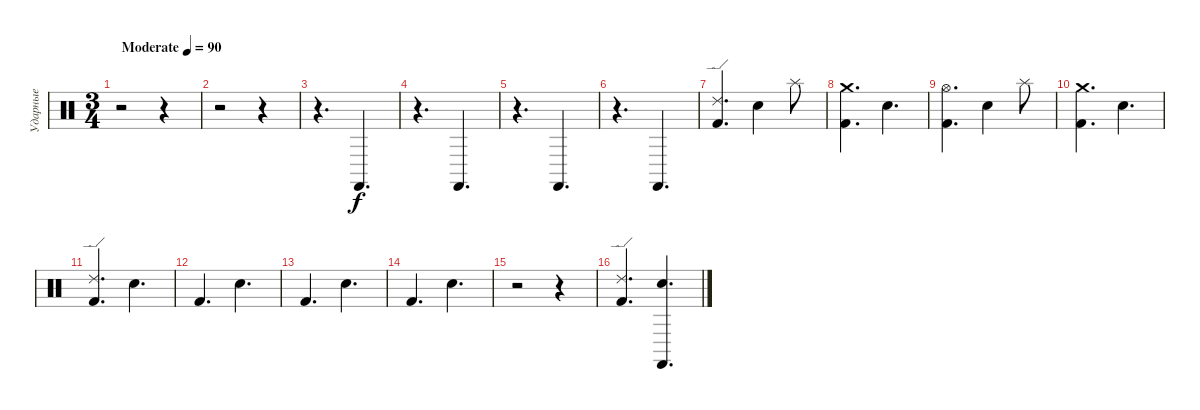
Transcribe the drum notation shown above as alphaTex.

\track ("Ударные" "Ударные") {instrument percussion}
\staff {score}
\articulation defaults
\ts (3 4)
\tempo (90 "Moderate")
\clef neutral
\ks c
r.2{dy f} r.4 |
r.2 r.4 |
r.4{d} "Castanets (hit)".4{d} |
r.4{d} "Castanets (hit)".4{d} |
r.4{d} "Castanets (hit)".4{d} |
r.4{d} "Castanets (hit)".4{d} |
("Ride (edge) 2" "Kick (hit) 2").4{d} "Snare (hit) 2".4 "Splash (hit)".8 |
("Crash medium (hit)" "Kick (hit) 2").4{d} "Snare (hit) 2".4{d} |
("Hi-Hat (open)" "Kick (hit) 2").4{d} "Snare (hit) 2".4 "Splash (hit)".8 |
("Crash medium (hit)" "Kick (hit) 2").4{d} "Snare (hit) 2".4{d} |
("Ride (edge) 2" "Kick (hit) 2").4{d} "Snare (hit) 2".4{d} |
"Kick (hit) 2".4{d} "Snare (hit) 2".4{d} |
"Kick (hit) 2".4{d} "Snare (hit) 2".4{d} |
"Kick (hit) 2".4{d} "Snare (hit) 2".4{d} |
r.2 r.4 |
("Ride (edge) 2" "Kick (hit) 2").4{d} ("Castanets (hit)" "Snare (hit) 2").4{d}
